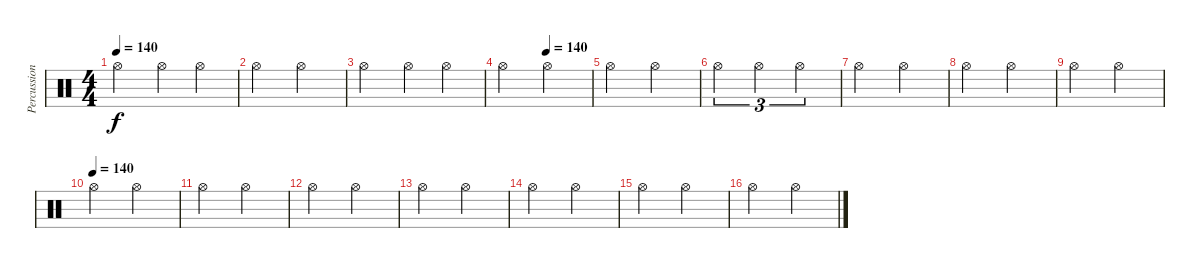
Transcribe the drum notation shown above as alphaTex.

\track ("Percussions" "Percussion") {instrument percussion}
\staff {score}
\articulation defaults
\ts (4 4)
\tempo 140
\clef neutral
\ks c "Hi-Hat (open)".2{dy f} "Hi-Hat (open)".4 "Hi-Hat (open)".4
|
"Hi-Hat (open)".2 "Hi-Hat (open)".2 |
"Hi-Hat (open)".2 "Hi-Hat (open)".4 "Hi-Hat (open)".4 |
\tempo (140 0.5)
"Hi-Hat (open)".2 "Hi-Hat (open)".2 |
"Hi-Hat (open)".2 "Hi-Hat (open)".2 |
"Hi-Hat (open)".2{tu (3 2)} "Hi-Hat (open)".2{tu (3 2)} "Hi-Hat (open)".2{tu (3 2)} |
"Hi-Hat (open)".2 "Hi-Hat (open)".2 |
"Hi-Hat (open)".2 "Hi-Hat (open)".2 |
"Hi-Hat (open)".2 "Hi-Hat (open)".2 |
\tempo (140)
"Hi-Hat (open)".2 "Hi-Hat (open)".2 |
"Hi-Hat (open)".2 "Hi-Hat (open)".2 |
"Hi-Hat (open)".2 "Hi-Hat (open)".2 |
"Hi-Hat (open)".2 "Hi-Hat (open)".2 |
"Hi-Hat (open)".2 "Hi-Hat (open)".2 |
"Hi-Hat (open)".2 "Hi-Hat (open)".2 |
"Hi-Hat (open)".2 "Hi-Hat (open)".2
